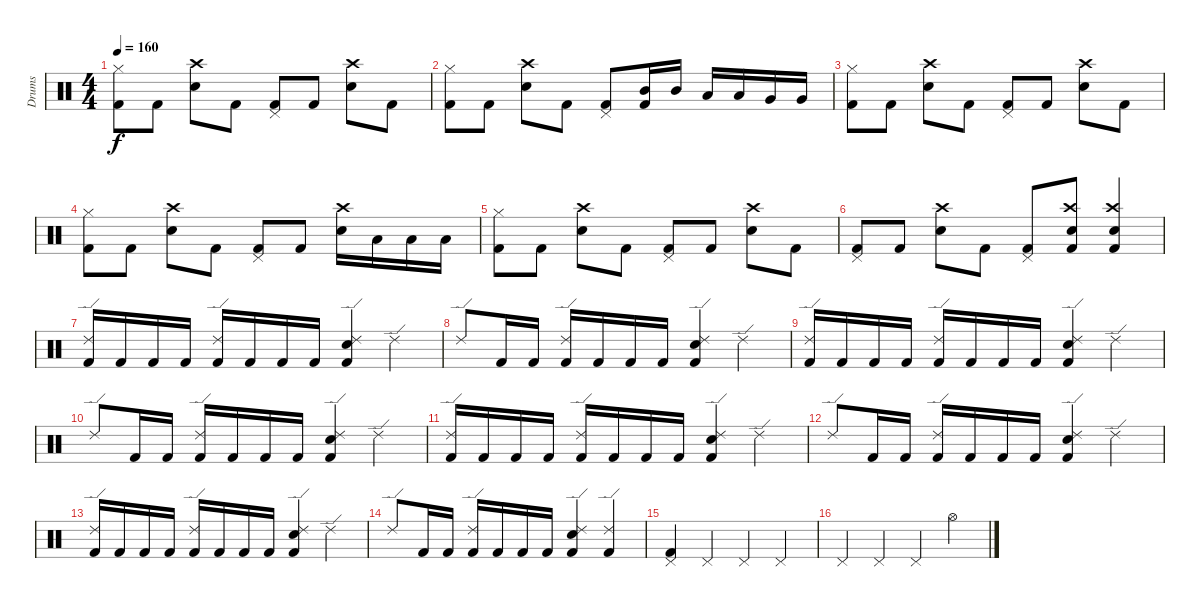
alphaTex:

\track ("Drums" "Drums") {instrument percussion}
\staff {score}
\articulation defaults
\ts (4 4)
\tempo 160
\clef neutral
\ks c
("Hi-Hat (closed)" "Kick (hit) 2").8{dy f} "Kick (hit) 2".8 ("Crash high (hit)" "Snare (hit) 2").8 "Kick (hit) 2".8 ("Pedal Hi-Hat (hit)" "Kick (hit) 2").8 "Kick (hit) 2".8 ("Crash high (hit)" "Snare (hit) 2").8 "Kick (hit) 2".8 |
("Hi-Hat (closed)" "Kick (hit) 2").8 "Kick (hit) 2".8 ("Crash high (hit)" "Snare (hit) 2").8 "Kick (hit) 2".8 ("Pedal Hi-Hat (hit)" "Kick (hit) 2").8 ("Mid Tom (hit)" "Kick (hit) 2").16 "Mid Tom (hit)".16 "Low Tom (hit)".16 "Low Tom (hit)".16 "Very Low Tom (hit)".16 "Very Low Tom (hit)".16 |
("Hi-Hat (closed)" "Kick (hit) 2").8 "Kick (hit) 2".8 ("Crash high (hit)" "Snare (hit) 2").8 "Kick (hit) 2".8 ("Pedal Hi-Hat (hit)" "Kick (hit) 2").8 "Kick (hit) 2".8 ("Crash high (hit)" "Snare (hit) 2").8 "Kick (hit) 2".8 |
("Hi-Hat (closed)" "Kick (hit) 2").8 "Kick (hit) 2".8 ("Crash high (hit)" "Snare (hit) 2").8 "Kick (hit) 2".8 ("Pedal Hi-Hat (hit)" "Kick (hit) 2").8 "Kick (hit) 2".8 ("Crash high (hit)" "Snare (hit) 2").16 "Low Tom (hit)".16 "Low Tom (hit)".16 "Low Tom (hit)".16 |
("Hi-Hat (closed)" "Kick (hit) 2").8 "Kick (hit) 2".8 ("Crash high (hit)" "Snare (hit) 2").8 "Kick (hit) 2".8 ("Pedal Hi-Hat (hit)" "Kick (hit) 2").8 "Kick (hit) 2".8 ("Crash high (hit)" "Snare (hit) 2").8 "Kick (hit) 2".8 |
("Pedal Hi-Hat (hit)" "Kick (hit) 2").8 "Kick (hit) 2".8 ("Crash high (hit)" "Snare (hit) 2").8 "Kick (hit) 2".8 ("Pedal Hi-Hat (hit)" "Kick (hit) 2").8 ("Crash high (hit)" "Snare (hit) 2" "Kick (hit) 2").8 ("Crash high (hit)" "Snare (hit) 2" "Kick (hit) 2").4 |
("Ride (edge) 2" "Kick (hit) 2").16 "Kick (hit) 2".16 "Kick (hit) 2".16 "Kick (hit) 2".16 ("Ride (edge) 2" "Kick (hit) 2").16 "Kick (hit) 2".16 "Kick (hit) 2".16 "Kick (hit) 2".16 ("Ride (edge) 2" "Snare (hit) 2" "Kick (hit) 2").4 "Ride (edge) 2".4 |
"Ride (edge) 2".8 "Kick (hit) 2".16 "Kick (hit) 2".16 ("Ride (edge) 2" "Kick (hit) 2").16 "Kick (hit) 2".16 "Kick (hit) 2".16 "Kick (hit) 2".16 ("Ride (edge) 2" "Snare (hit) 2" "Kick (hit) 2").4 "Ride (edge) 2".4 |
("Ride (edge) 2" "Kick (hit) 2").16 "Kick (hit) 2".16 "Kick (hit) 2".16 "Kick (hit) 2".16 ("Ride (edge) 2" "Kick (hit) 2").16 "Kick (hit) 2".16 "Kick (hit) 2".16 "Kick (hit) 2".16 ("Ride (edge) 2" "Snare (hit) 2" "Kick (hit) 2").4 "Ride (edge) 2".4 |
"Ride (edge) 2".8 "Kick (hit) 2".16 "Kick (hit) 2".16 ("Ride (edge) 2" "Kick (hit) 2").16 "Kick (hit) 2".16 "Kick (hit) 2".16 "Kick (hit) 2".16 ("Ride (edge) 2" "Snare (hit) 2" "Kick (hit) 2").4 "Ride (edge) 2".4 |
("Ride (edge) 2" "Kick (hit) 2").16 "Kick (hit) 2".16 "Kick (hit) 2".16 "Kick (hit) 2".16 ("Ride (edge) 2" "Kick (hit) 2").16 "Kick (hit) 2".16 "Kick (hit) 2".16 "Kick (hit) 2".16 ("Ride (edge) 2" "Snare (hit) 2" "Kick (hit) 2").4 "Ride (edge) 2".4 |
"Ride (edge) 2".8 "Kick (hit) 2".16 "Kick (hit) 2".16 ("Ride (edge) 2" "Kick (hit) 2").16 "Kick (hit) 2".16 "Kick (hit) 2".16 "Kick (hit) 2".16 ("Ride (edge) 2" "Snare (hit) 2" "Kick (hit) 2").4 "Ride (edge) 2".4 |
("Ride (edge) 2" "Kick (hit) 2").16 "Kick (hit) 2".16 "Kick (hit) 2".16 "Kick (hit) 2".16 ("Ride (edge) 2" "Kick (hit) 2").16 "Kick (hit) 2".16 "Kick (hit) 2".16 "Kick (hit) 2".16 ("Ride (edge) 2" "Snare (hit) 2" "Kick (hit) 2").4 "Ride (edge) 2".4 |
"Ride (edge) 2".8 "Kick (hit) 2".16 "Kick (hit) 2".16 ("Ride (edge) 2" "Kick (hit) 2").16 "Kick (hit) 2".16 "Kick (hit) 2".16 "Kick (hit) 2".16 ("Ride (edge) 2" "Snare (hit) 2" "Kick (hit) 2").4 ("Ride (edge) 2" "Kick (hit) 2").4 |
("Pedal Hi-Hat (hit)" "Kick (hit) 2").4 "Pedal Hi-Hat (hit)".4 "Pedal Hi-Hat (hit)".4 "Pedal Hi-Hat (hit)".4 |
"Pedal Hi-Hat (hit)".4 "Pedal Hi-Hat (hit)".4 "Pedal Hi-Hat (hit)".4 "Hi-Hat (open)".4
